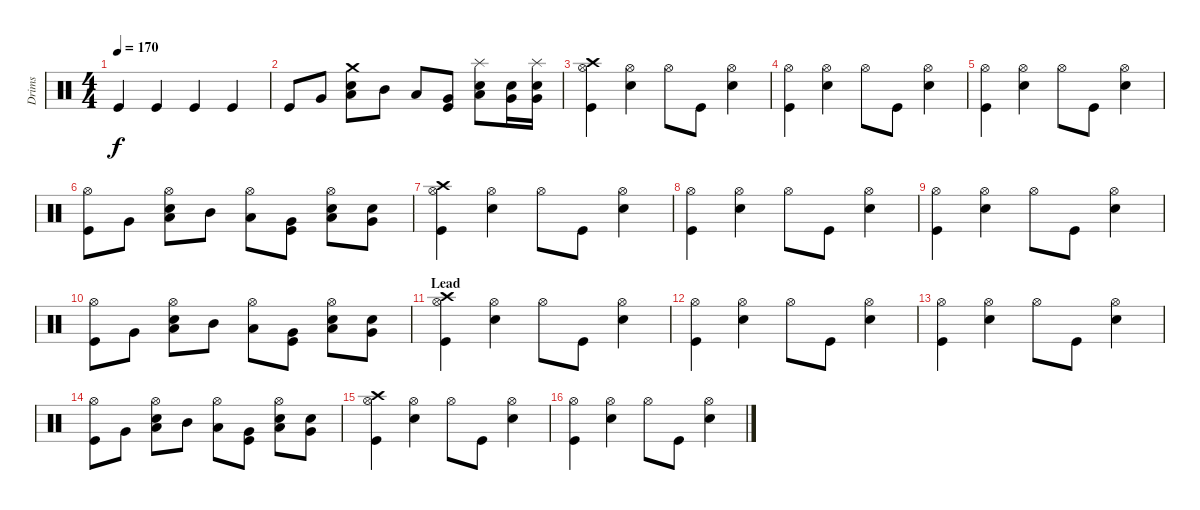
\track ("Drims" "Drims") {instrument percussion}
\staff {score}
\articulation defaults
\ts (4 4)
\tempo 170
\clef neutral
\ks c "Kick (hit)".4{dy f} "Kick (hit)".4 "Kick (hit)".4 "Kick (hit)".4
|
"Kick (hit)".8 "Very Low Tom (hit)".8 ("Crash medium (hit)" "Electric Snare (hit)" "Low Tom (hit)").8 "Mid Tom (hit)".8 "Low Tom (hit)".8 ("Very Low Tom (hit)" "Kick (hit)").8 ("Splash (hit)" "Electric Snare (hit)" "Low Floor Tom (hit)").8 ("Electric Snare (hit)" "Very Low Tom (hit)").16 ("Splash (hit)" "Electric Snare (hit)" "Very Low Tom (hit)").16 |
("Hi-Hat (open)" "Crash high (hit)" "Kick (hit)").4 ("Hi-Hat (open)" "Electric Snare (hit)").4 "Hi-Hat (open)".8 "Kick (hit)".8 ("Hi-Hat (open)" "Electric Snare (hit)").4 |
("Hi-Hat (open)" "Kick (hit)").4 ("Hi-Hat (open)" "Electric Snare (hit)").4 "Hi-Hat (open)".8 "Kick (hit)".8 ("Hi-Hat (open)" "Electric Snare (hit)").4 |
("Hi-Hat (open)" "Kick (hit)").4 ("Hi-Hat (open)" "Electric Snare (hit)").4 "Hi-Hat (open)".8 "Kick (hit)".8 ("Hi-Hat (open)" "Electric Snare (hit)").4 |
("Hi-Hat (open)" "Kick (hit)").8 "Very Low Tom (hit)".8 ("Hi-Hat (open)" "Electric Snare (hit)" "Low Tom (hit)").8 "Mid Tom (hit)".8 ("Hi-Hat (open)" "Low Tom (hit)").8 ("Very Low Tom (hit)" "Kick (hit)").8 ("Hi-Hat (open)" "Electric Snare (hit)" "Low Floor Tom (hit)").8 ("Electric Snare (hit)" "Very Low Tom (hit)").8 |
("Hi-Hat (open)" "Crash high (hit)" "Kick (hit)").4 ("Hi-Hat (open)" "Electric Snare (hit)").4 "Hi-Hat (open)".8 "Kick (hit)".8 ("Hi-Hat (open)" "Electric Snare (hit)").4 |
("Hi-Hat (open)" "Kick (hit)").4 ("Hi-Hat (open)" "Electric Snare (hit)").4 "Hi-Hat (open)".8 "Kick (hit)".8 ("Hi-Hat (open)" "Electric Snare (hit)").4 |
("Hi-Hat (open)" "Kick (hit)").4 ("Hi-Hat (open)" "Electric Snare (hit)").4 "Hi-Hat (open)".8 "Kick (hit)".8 ("Hi-Hat (open)" "Electric Snare (hit)").4 |
("Hi-Hat (open)" "Kick (hit)").8 "Very Low Tom (hit)".8 ("Hi-Hat (open)" "Electric Snare (hit)" "Low Tom (hit)").8 "Mid Tom (hit)".8 ("Hi-Hat (open)" "Low Tom (hit)").8 ("Very Low Tom (hit)" "Kick (hit)").8 ("Hi-Hat (open)" "Electric Snare (hit)" "Low Floor Tom (hit)").8 ("Electric Snare (hit)" "Very Low Tom (hit)").8 |
\section ("" "Lead")
("Hi-Hat (open)" "Crash high (hit)" "Kick (hit)").4 ("Hi-Hat (open)" "Electric Snare (hit)").4 "Hi-Hat (open)".8 "Kick (hit)".8 ("Hi-Hat (open)" "Electric Snare (hit)").4 |
("Hi-Hat (open)" "Kick (hit)").4 ("Hi-Hat (open)" "Electric Snare (hit)").4 "Hi-Hat (open)".8 "Kick (hit)".8 ("Hi-Hat (open)" "Electric Snare (hit)").4 |
("Hi-Hat (open)" "Kick (hit)").4 ("Hi-Hat (open)" "Electric Snare (hit)").4 "Hi-Hat (open)".8 "Kick (hit)".8 ("Hi-Hat (open)" "Electric Snare (hit)").4 |
("Hi-Hat (open)" "Kick (hit)").8 "Very Low Tom (hit)".8 ("Hi-Hat (open)" "Electric Snare (hit)" "Low Tom (hit)").8 "Mid Tom (hit)".8 ("Hi-Hat (open)" "Low Tom (hit)").8 ("Very Low Tom (hit)" "Kick (hit)").8 ("Hi-Hat (open)" "Electric Snare (hit)" "Low Floor Tom (hit)").8 ("Electric Snare (hit)" "Very Low Tom (hit)").8 |
("Hi-Hat (open)" "Crash high (hit)" "Kick (hit)").4 ("Hi-Hat (open)" "Electric Snare (hit)").4 "Hi-Hat (open)".8 "Kick (hit)".8 ("Hi-Hat (open)" "Electric Snare (hit)").4 |
("Hi-Hat (open)" "Kick (hit)").4 ("Hi-Hat (open)" "Electric Snare (hit)").4 "Hi-Hat (open)".8 "Kick (hit)".8 ("Hi-Hat (open)" "Electric Snare (hit)").4
